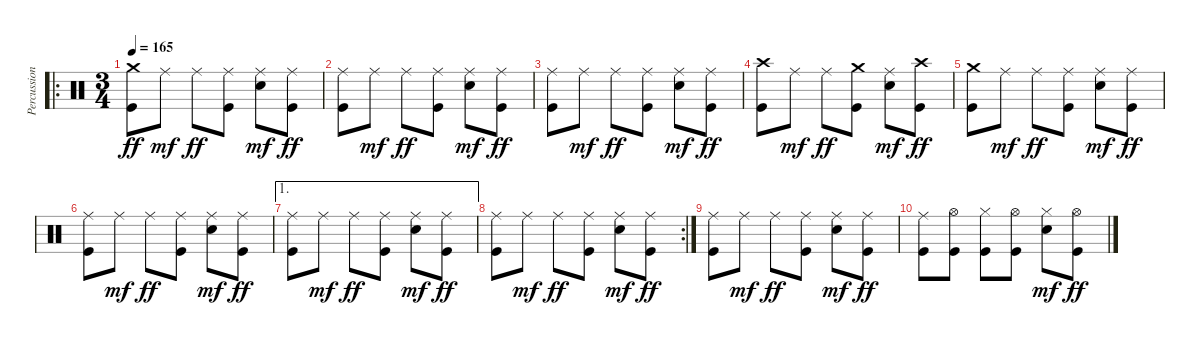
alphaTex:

\track ("Percussion" "Percussion") {instrument percussion}
\staff {score}
\articulation defaults
\ro
\ts (3 4)
\tempo 165
\clef neutral
\ks c
("Crash medium (hit)" "Kick (hit)").8{dy ff} "Ride (middle)".8{dy mf} "Ride (middle)".8{dy ff} ("Ride (middle)" "Kick (hit)").8 ("Ride (middle)" "Electric Snare (hit)").8{dy mf} ("Ride (middle)" "Kick (hit)").8{dy ff} |
("Ride (middle)" "Kick (hit)").8 "Ride (middle)".8{dy mf} "Ride (middle)".8{dy ff} ("Ride (middle)" "Kick (hit)").8 ("Ride (middle)" "Electric Snare (hit)").8{dy mf} ("Ride (middle)" "Kick (hit)").8{dy ff} |
("Ride (middle)" "Kick (hit)").8 "Ride (middle)".8{dy mf} "Ride (middle)".8{dy ff} ("Ride (middle)" "Kick (hit)").8 ("Ride (middle)" "Electric Snare (hit)").8{dy mf} ("Ride (middle)" "Kick (hit)").8{dy ff} |
("Crash high (hit)" "Kick (hit)").8 "Ride (middle)".8{dy mf} "Ride (middle)".8{dy ff} ("Crash medium (hit)" "Kick (hit)").8 ("Ride (middle)" "Electric Snare (hit)").8{dy mf} ("Crash high (hit)" "Kick (hit)").8{dy ff} |
("Crash medium (hit)" "Kick (hit)").8 "Ride (middle)".8{dy mf} "Ride (middle)".8{dy ff} ("Ride (middle)" "Kick (hit)").8 ("Ride (middle)" "Electric Snare (hit)").8{dy mf} ("Ride (middle)" "Kick (hit)").8{dy ff} |
("Ride (middle)" "Kick (hit)").8 "Ride (middle)".8{dy mf} "Ride (middle)".8{dy ff} ("Ride (middle)" "Kick (hit)").8 ("Ride (middle)" "Electric Snare (hit)").8{dy mf} ("Ride (middle)" "Kick (hit)").8{dy ff} |
\ae 1
("Ride (middle)" "Kick (hit)").8 "Ride (middle)".8{dy mf} "Ride (middle)".8{dy ff} ("Ride (middle)" "Kick (hit)").8 ("Ride (middle)" "Electric Snare (hit)").8{dy mf} ("Ride (middle)" "Kick (hit)").8{dy ff} |
\rc 2
("Ride (middle)" "Kick (hit)").8 "Ride (middle)".8{dy mf} "Ride (middle)".8{dy ff} ("Ride (middle)" "Kick (hit)").8 ("Ride (middle)" "Electric Snare (hit)").8{dy mf} ("Ride (middle)" "Kick (hit)").8{dy ff} |
("Ride (middle)" "Kick (hit)").8 "Ride (middle)".8{dy mf} "Ride (middle)".8{dy ff} ("Ride (middle)" "Kick (hit)").8 ("Ride (middle)" "Electric Snare (hit)").8{dy mf} ("Ride (middle)" "Kick (hit)").8{dy ff} |
("Ride (middle)" "Kick (hit)").8 ("Hi-Hat (open)" "Kick (hit)").8 ("Hi-Hat (closed)" "Kick (hit)").8 ("Hi-Hat (open)" "Kick (hit)").8 ("Hi-Hat (closed)" "Electric Snare (hit)").8{dy mf} ("Hi-Hat (open)" "Kick (hit)").8{dy ff}
